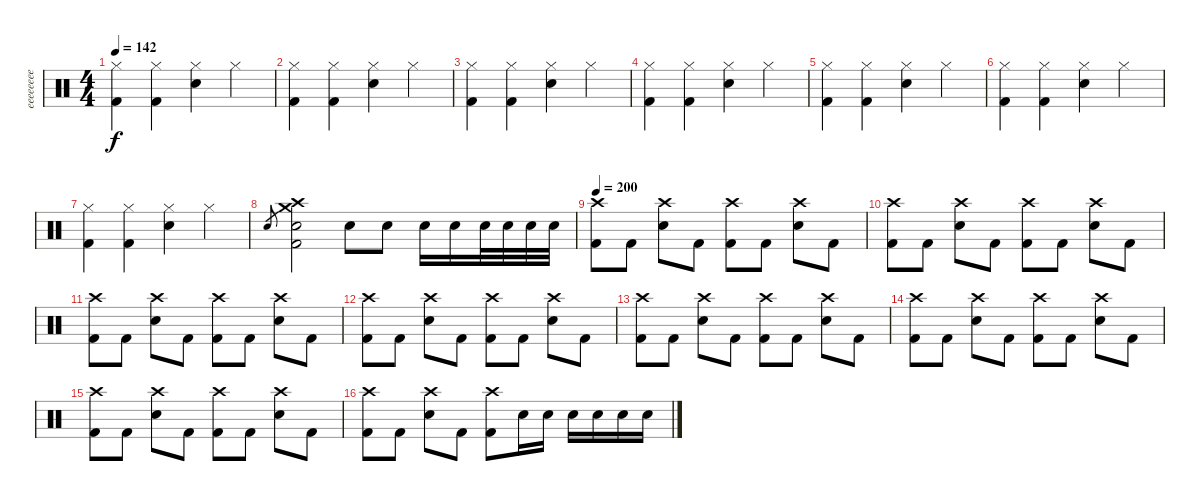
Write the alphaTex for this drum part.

\track ("eeeeeeee" "eeeeeeee") {instrument percussion}
\staff {score}
\articulation defaults
\ts (4 4)
\tempo 142
\clef neutral
\ks c
("Hi-Hat (closed)" "Kick (hit) 2").4{dy f} ("Hi-Hat (closed)" "Kick (hit) 2").4 ("Hi-Hat (closed)" "Electric Snare (hit)").4 "Hi-Hat (closed)".4 |
("Hi-Hat (closed)" "Kick (hit) 2").4 ("Hi-Hat (closed)" "Kick (hit) 2").4 ("Hi-Hat (closed)" "Electric Snare (hit)").4 "Hi-Hat (closed)".4 |
("Hi-Hat (closed)" "Kick (hit) 2").4 ("Hi-Hat (closed)" "Kick (hit) 2").4 ("Hi-Hat (closed)" "Electric Snare (hit)").4 "Hi-Hat (closed)".4 |
("Hi-Hat (closed)" "Kick (hit) 2").4 ("Hi-Hat (closed)" "Kick (hit) 2").4 ("Hi-Hat (closed)" "Electric Snare (hit)").4 "Hi-Hat (closed)".4 |
("Hi-Hat (closed)" "Kick (hit) 2").4 ("Hi-Hat (closed)" "Kick (hit) 2").4 ("Hi-Hat (closed)" "Electric Snare (hit)").4 "Hi-Hat (closed)".4 |
("Hi-Hat (closed)" "Kick (hit) 2").4 ("Hi-Hat (closed)" "Kick (hit) 2").4 ("Hi-Hat (closed)" "Electric Snare (hit)").4 "Hi-Hat (closed)".4 |
("Hi-Hat (closed)" "Kick (hit) 2").4 ("Hi-Hat (closed)" "Kick (hit) 2").4 ("Hi-Hat (closed)" "Electric Snare (hit)").4 "Hi-Hat (closed)".4 |
"Electric Snare (hit)".8{gr} ("Crash high (hit)" "Crash medium (hit)" "Electric Snare (hit)" "Kick (hit) 2").2 "Electric Snare (hit)".8 "Electric Snare (hit)".8 "Electric Snare (hit)".16 "Electric Snare (hit)".16 "Electric Snare (hit)".32 "Electric Snare (hit)".32 "Electric Snare (hit)".32 "Electric Snare (hit)".32 |
\tempo 200
("Crash high (hit)" "Kick (hit) 2").8 "Kick (hit) 2".8 ("Crash high (hit)" "Electric Snare (hit)").8 "Kick (hit) 2".8 ("Crash high (hit)" "Kick (hit) 2").8 "Kick (hit) 2".8 ("Crash high (hit)" "Electric Snare (hit)").8 "Kick (hit) 2".8 |
("Crash high (hit)" "Kick (hit) 2").8 "Kick (hit) 2".8 ("Crash high (hit)" "Electric Snare (hit)").8 "Kick (hit) 2".8 ("Crash high (hit)" "Kick (hit) 2").8 "Kick (hit) 2".8 ("Crash high (hit)" "Electric Snare (hit)").8 "Kick (hit) 2".8 |
("Crash high (hit)" "Kick (hit) 2").8 "Kick (hit) 2".8 ("Crash high (hit)" "Electric Snare (hit)").8 "Kick (hit) 2".8 ("Crash high (hit)" "Kick (hit) 2").8 "Kick (hit) 2".8 ("Crash high (hit)" "Electric Snare (hit)").8 "Kick (hit) 2".8 |
("Crash high (hit)" "Kick (hit) 2").8 "Kick (hit) 2".8 ("Crash high (hit)" "Electric Snare (hit)").8 "Kick (hit) 2".8 ("Crash high (hit)" "Kick (hit) 2").8 "Kick (hit) 2".8 ("Crash high (hit)" "Electric Snare (hit)").8 "Kick (hit) 2".8 |
("Crash high (hit)" "Kick (hit) 2").8 "Kick (hit) 2".8 ("Crash high (hit)" "Electric Snare (hit)").8 "Kick (hit) 2".8 ("Crash high (hit)" "Kick (hit) 2").8 "Kick (hit) 2".8 ("Crash high (hit)" "Electric Snare (hit)").8 "Kick (hit) 2".8 |
("Crash high (hit)" "Kick (hit) 2").8 "Kick (hit) 2".8 ("Crash high (hit)" "Electric Snare (hit)").8 "Kick (hit) 2".8 ("Crash high (hit)" "Kick (hit) 2").8 "Kick (hit) 2".8 ("Crash high (hit)" "Electric Snare (hit)").8 "Kick (hit) 2".8 |
("Crash high (hit)" "Kick (hit) 2").8 "Kick (hit) 2".8 ("Crash high (hit)" "Electric Snare (hit)").8 "Kick (hit) 2".8 ("Crash high (hit)" "Kick (hit) 2").8 "Kick (hit) 2".8 ("Crash high (hit)" "Electric Snare (hit)").8 "Kick (hit) 2".8 |
("Crash high (hit)" "Kick (hit) 2").8 "Kick (hit) 2".8 ("Crash high (hit)" "Electric Snare (hit)").8 "Kick (hit) 2".8 ("Crash high (hit)" "Kick (hit) 2").8 "Electric Snare (hit)".16 "Electric Snare (hit)".16 "Electric Snare (hit)".16 "Electric Snare (hit)".16 "Electric Snare (hit)".16 "Electric Snare (hit)".16
